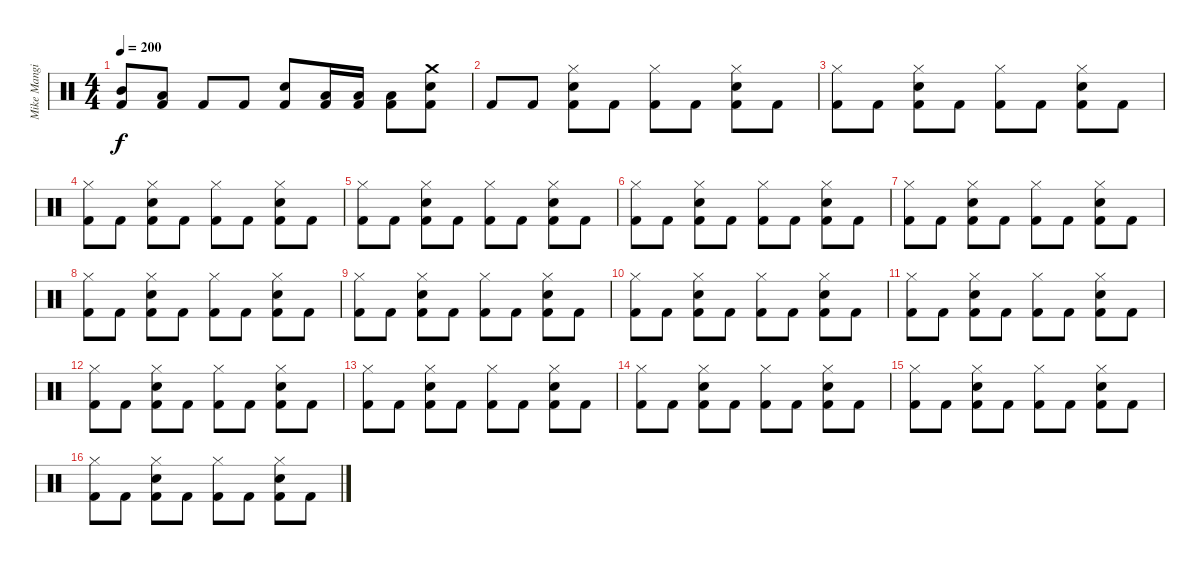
\track ("Mike Mangini" "Mike Mangi") {instrument percussion}
\staff {score}
\articulation defaults
\ts (4 4)
\tempo 200
\clef neutral
\ks c
("Mid Tom (hit)" "Kick (hit) 2").8{dy f} ("Low Tom (hit)" "Kick (hit) 2").8 "Kick (hit) 2".8 "Kick (hit) 2".8 ("Electric Snare (hit)" "Kick (hit) 2").8 ("Low Tom (hit)" "Kick (hit) 2").16 ("Low Tom (hit)" "Kick (hit) 2").16 ("Low Tom (hit)" "Kick (hit) 2").8 ("Crash medium (hit)" "Electric Snare (hit)" "Kick (hit) 2").8 |
"Kick (hit) 2".8 "Kick (hit) 2".8 ("Hi-Hat (closed)" "Electric Snare (hit)" "Kick (hit) 2").8 "Kick (hit) 2".8 ("Hi-Hat (closed)" "Kick (hit) 2").8 "Kick (hit) 2".8 ("Hi-Hat (closed)" "Electric Snare (hit)" "Kick (hit) 2").8 "Kick (hit) 2".8 |
("Hi-Hat (closed)" "Kick (hit) 2").8 "Kick (hit) 2".8 ("Hi-Hat (closed)" "Electric Snare (hit)" "Kick (hit) 2").8 "Kick (hit) 2".8 ("Hi-Hat (closed)" "Kick (hit) 2").8 "Kick (hit) 2".8 ("Hi-Hat (closed)" "Electric Snare (hit)" "Kick (hit) 2").8 "Kick (hit) 2".8 |
("Hi-Hat (closed)" "Kick (hit) 2").8 "Kick (hit) 2".8 ("Hi-Hat (closed)" "Electric Snare (hit)" "Kick (hit) 2").8 "Kick (hit) 2".8 ("Hi-Hat (closed)" "Kick (hit) 2").8 "Kick (hit) 2".8 ("Hi-Hat (closed)" "Electric Snare (hit)" "Kick (hit) 2").8 "Kick (hit) 2".8 |
("Hi-Hat (closed)" "Kick (hit) 2").8 "Kick (hit) 2".8 ("Hi-Hat (closed)" "Electric Snare (hit)" "Kick (hit) 2").8 "Kick (hit) 2".8 ("Hi-Hat (closed)" "Kick (hit) 2").8 "Kick (hit) 2".8 ("Hi-Hat (closed)" "Electric Snare (hit)" "Kick (hit) 2").8 "Kick (hit) 2".8 |
("Hi-Hat (closed)" "Kick (hit) 2").8 "Kick (hit) 2".8 ("Hi-Hat (closed)" "Electric Snare (hit)" "Kick (hit) 2").8 "Kick (hit) 2".8 ("Hi-Hat (closed)" "Kick (hit) 2").8 "Kick (hit) 2".8 ("Hi-Hat (closed)" "Electric Snare (hit)" "Kick (hit) 2").8 "Kick (hit) 2".8 |
("Hi-Hat (closed)" "Kick (hit) 2").8 "Kick (hit) 2".8 ("Hi-Hat (closed)" "Electric Snare (hit)" "Kick (hit) 2").8 "Kick (hit) 2".8 ("Hi-Hat (closed)" "Kick (hit) 2").8 "Kick (hit) 2".8 ("Hi-Hat (closed)" "Electric Snare (hit)" "Kick (hit) 2").8 "Kick (hit) 2".8 |
("Hi-Hat (closed)" "Kick (hit) 2").8 "Kick (hit) 2".8 ("Hi-Hat (closed)" "Electric Snare (hit)" "Kick (hit) 2").8 "Kick (hit) 2".8 ("Hi-Hat (closed)" "Kick (hit) 2").8 "Kick (hit) 2".8 ("Hi-Hat (closed)" "Electric Snare (hit)" "Kick (hit) 2").8 "Kick (hit) 2".8 |
("Hi-Hat (closed)" "Kick (hit) 2").8 "Kick (hit) 2".8 ("Hi-Hat (closed)" "Electric Snare (hit)" "Kick (hit) 2").8 "Kick (hit) 2".8 ("Hi-Hat (closed)" "Kick (hit) 2").8 "Kick (hit) 2".8 ("Hi-Hat (closed)" "Electric Snare (hit)" "Kick (hit) 2").8 "Kick (hit) 2".8 |
("Hi-Hat (closed)" "Kick (hit) 2").8 "Kick (hit) 2".8 ("Hi-Hat (closed)" "Electric Snare (hit)" "Kick (hit) 2").8 "Kick (hit) 2".8 ("Hi-Hat (closed)" "Kick (hit) 2").8 "Kick (hit) 2".8 ("Hi-Hat (closed)" "Electric Snare (hit)" "Kick (hit) 2").8 "Kick (hit) 2".8 |
("Hi-Hat (closed)" "Kick (hit) 2").8 "Kick (hit) 2".8 ("Hi-Hat (closed)" "Electric Snare (hit)" "Kick (hit) 2").8 "Kick (hit) 2".8 ("Hi-Hat (closed)" "Kick (hit) 2").8 "Kick (hit) 2".8 ("Hi-Hat (closed)" "Electric Snare (hit)" "Kick (hit) 2").8 "Kick (hit) 2".8 |
("Hi-Hat (closed)" "Kick (hit) 2").8 "Kick (hit) 2".8 ("Hi-Hat (closed)" "Electric Snare (hit)" "Kick (hit) 2").8 "Kick (hit) 2".8 ("Hi-Hat (closed)" "Kick (hit) 2").8 "Kick (hit) 2".8 ("Hi-Hat (closed)" "Electric Snare (hit)" "Kick (hit) 2").8 "Kick (hit) 2".8 |
("Hi-Hat (closed)" "Kick (hit) 2").8 "Kick (hit) 2".8 ("Hi-Hat (closed)" "Electric Snare (hit)" "Kick (hit) 2").8 "Kick (hit) 2".8 ("Hi-Hat (closed)" "Kick (hit) 2").8 "Kick (hit) 2".8 ("Hi-Hat (closed)" "Electric Snare (hit)" "Kick (hit) 2").8 "Kick (hit) 2".8 |
("Hi-Hat (closed)" "Kick (hit) 2").8 "Kick (hit) 2".8 ("Hi-Hat (closed)" "Electric Snare (hit)" "Kick (hit) 2").8 "Kick (hit) 2".8 ("Hi-Hat (closed)" "Kick (hit) 2").8 "Kick (hit) 2".8 ("Hi-Hat (closed)" "Electric Snare (hit)" "Kick (hit) 2").8 "Kick (hit) 2".8 |
("Hi-Hat (closed)" "Kick (hit) 2").8 "Kick (hit) 2".8 ("Hi-Hat (closed)" "Electric Snare (hit)" "Kick (hit) 2").8 "Kick (hit) 2".8 ("Hi-Hat (closed)" "Kick (hit) 2").8 "Kick (hit) 2".8 ("Hi-Hat (closed)" "Electric Snare (hit)" "Kick (hit) 2").8 "Kick (hit) 2".8 |
("Hi-Hat (closed)" "Kick (hit) 2").8 "Kick (hit) 2".8 ("Hi-Hat (closed)" "Electric Snare (hit)" "Kick (hit) 2").8 "Kick (hit) 2".8 ("Hi-Hat (closed)" "Kick (hit) 2").8 "Kick (hit) 2".8 ("Hi-Hat (closed)" "Electric Snare (hit)" "Kick (hit) 2").8 "Kick (hit) 2".8
